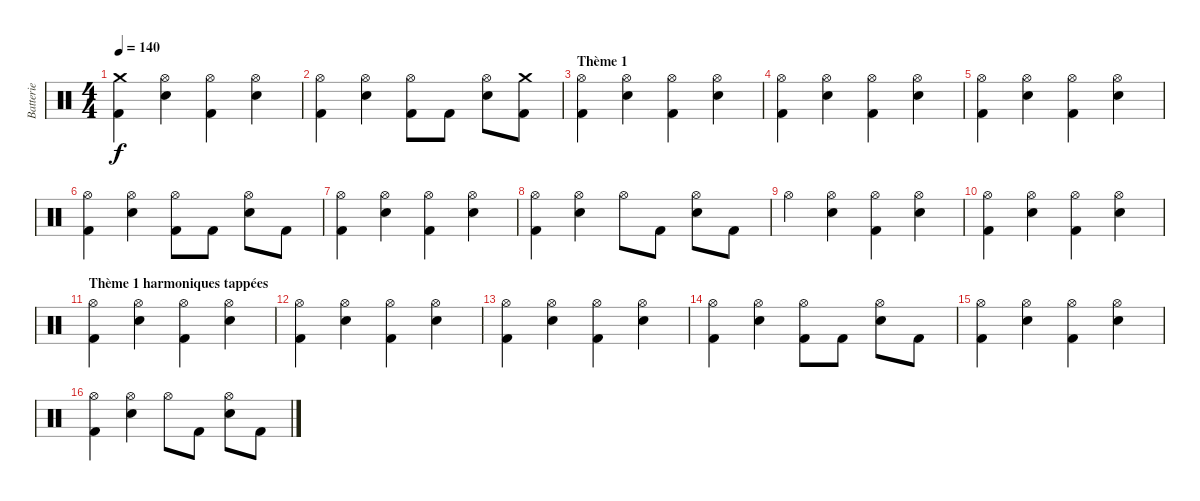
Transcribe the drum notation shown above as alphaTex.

\track ("Batterie" "Batterie") {instrument percussion}
\staff {score}
\articulation defaults
\ts (4 4)
\tempo 140
\clef neutral
\ks c
("Kick (hit) 2" "Crash medium (hit)").4{dy f} ("Hi-Hat (open)" "Snare (hit) 2").4 ("Kick (hit) 2" "Hi-Hat (open)").4 ("Snare (hit) 2" "Hi-Hat (open)").4 |
("Hi-Hat (open)" "Kick (hit) 2").4 ("Hi-Hat (open)" "Snare (hit) 2").4 ("Hi-Hat (open)" "Kick (hit) 2").8 "Kick (hit) 2".8 ("Snare (hit) 2" "Hi-Hat (open)").8 ("Kick (hit) 2" "Crash medium (hit)").8 |
\section ("" "Thème 1")
("Hi-Hat (open)" "Kick (hit) 2").4 ("Snare (hit) 2" "Hi-Hat (open)").4 ("Kick (hit) 2" "Hi-Hat (open)").4 ("Snare (hit) 2" "Hi-Hat (open)").4 |
("Kick (hit) 2" "Hi-Hat (open)").4 ("Snare (hit) 2" "Hi-Hat (open)").4 ("Hi-Hat (open)" "Kick (hit) 2").4 ("Hi-Hat (open)" "Snare (hit) 2").4 |
("Hi-Hat (open)" "Kick (hit) 2").4 ("Hi-Hat (open)" "Snare (hit) 2").4 ("Kick (hit) 2" "Hi-Hat (open)").4 ("Hi-Hat (open)" "Snare (hit) 2").4 |
("Hi-Hat (open)" "Kick (hit) 2").4 ("Snare (hit) 2" "Hi-Hat (open)").4 ("Hi-Hat (open)" "Kick (hit) 2").8 "Kick (hit) 2".8 ("Snare (hit) 2" "Hi-Hat (open)").8 "Kick (hit) 2".8 |
("Hi-Hat (open)" "Kick (hit) 2").4 ("Hi-Hat (open)" "Snare (hit) 2").4 ("Kick (hit) 2" "Hi-Hat (open)").4 ("Snare (hit) 2" "Hi-Hat (open)").4 |
("Kick (hit) 2" "Hi-Hat (open)").4 ("Snare (hit) 2" "Hi-Hat (open)").4 "Hi-Hat (open)".8 "Kick (hit) 2".8 ("Hi-Hat (open)" "Snare (hit) 2").8 "Kick (hit) 2".8 |
"Hi-Hat (open)".4 ("Hi-Hat (open)" "Snare (hit) 2").4 ("Hi-Hat (open)" "Kick (hit) 2").4 ("Hi-Hat (open)" "Snare (hit) 2").4 |
("Kick (hit) 2" "Hi-Hat (open)").4 ("Hi-Hat (open)" "Snare (hit) 2").4 ("Hi-Hat (open)" "Kick (hit) 2").4 ("Hi-Hat (open)" "Snare (hit) 2").4 |
\section ("" "Thème 1 harmoniques tappées")
("Hi-Hat (open)" "Kick (hit) 2").4 ("Hi-Hat (open)" "Snare (hit) 2").4 ("Hi-Hat (open)" "Kick (hit) 2").4 ("Snare (hit) 2" "Hi-Hat (open)").4 |
("Kick (hit) 2" "Hi-Hat (open)").4 ("Snare (hit) 2" "Hi-Hat (open)").4 ("Hi-Hat (open)" "Kick (hit) 2").4 ("Snare (hit) 2" "Hi-Hat (open)").4 |
("Kick (hit) 2" "Hi-Hat (open)").4 ("Snare (hit) 2" "Hi-Hat (open)").4 ("Hi-Hat (open)" "Kick (hit) 2").4 ("Hi-Hat (open)" "Snare (hit) 2").4 |
("Hi-Hat (open)" "Kick (hit) 2").4 ("Snare (hit) 2" "Hi-Hat (open)").4 ("Hi-Hat (open)" "Kick (hit) 2").8 "Kick (hit) 2".8 ("Hi-Hat (open)" "Snare (hit) 2").8 "Kick (hit) 2".8 |
("Kick (hit) 2" "Hi-Hat (open)").4 ("Hi-Hat (open)" "Snare (hit) 2").4 ("Hi-Hat (open)" "Kick (hit) 2").4 ("Snare (hit) 2" "Hi-Hat (open)").4 |
("Hi-Hat (open)" "Kick (hit) 2").4 ("Hi-Hat (open)" "Snare (hit) 2").4 "Hi-Hat (open)".8 "Kick (hit) 2".8 ("Hi-Hat (open)" "Snare (hit) 2").8 "Kick (hit) 2".8
